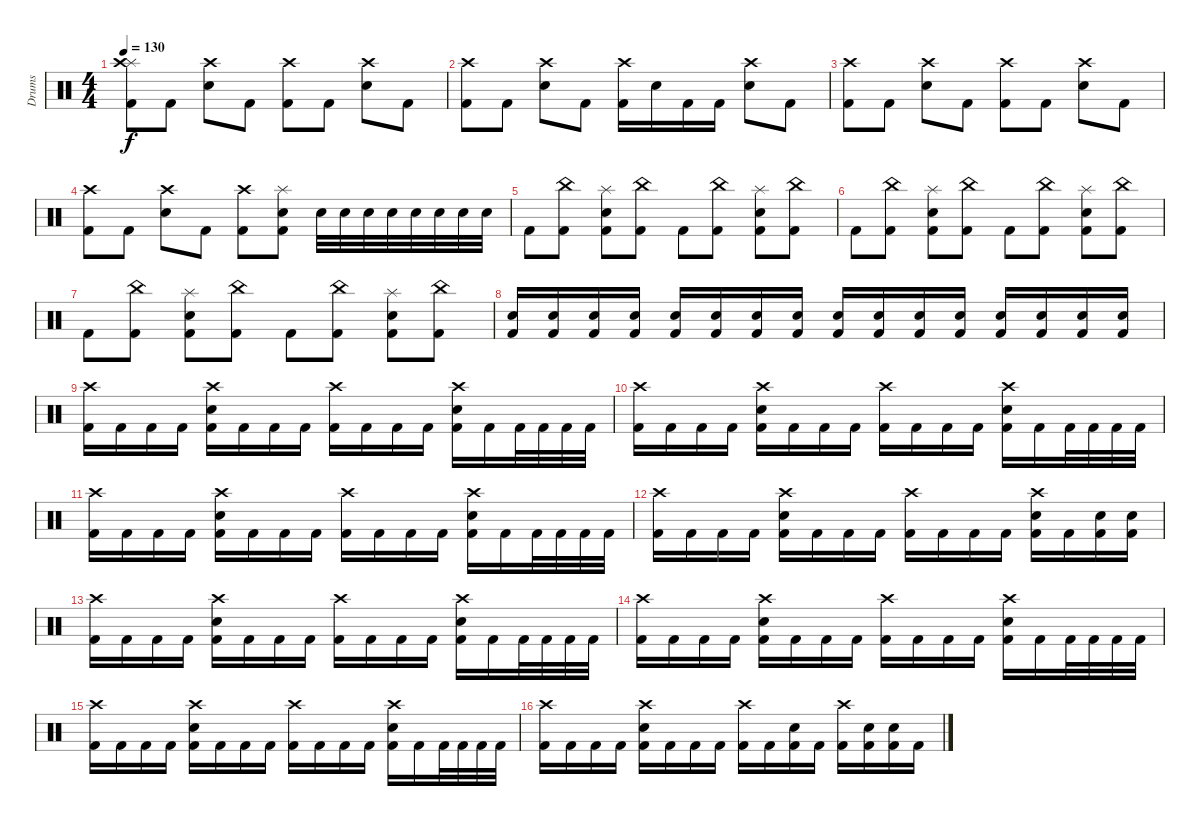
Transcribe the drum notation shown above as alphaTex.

\track ("Drums" "Drums") {instrument percussion}
\staff {score}
\articulation defaults
\ts (4 4)
\tempo 130
\clef neutral
\ks c
("Splash (hit)" "Crash high (hit)" "Kick (hit) 2").8{dy f} "Kick (hit) 2".8 ("Crash high (hit)" "Snare (hit) 2").8 "Kick (hit) 2".8 ("Crash high (hit)" "Kick (hit) 2").8 "Kick (hit) 2".8 ("Crash high (hit)" "Snare (hit) 2").8 "Kick (hit) 2".8 |
("Crash high (hit)" "Kick (hit) 2").8 "Kick (hit) 2".8 ("Crash high (hit)" "Snare (hit) 2").8 "Kick (hit) 2".8 ("Crash high (hit)" "Kick (hit) 2").16 "Snare (hit) 2".16 "Kick (hit) 2".16 "Kick (hit) 2".16 ("Crash high (hit)" "Snare (hit) 2").8 "Kick (hit) 2".8 |
("Crash high (hit)" "Kick (hit) 2").8 "Kick (hit) 2".8 ("Crash high (hit)" "Snare (hit) 2").8 "Kick (hit) 2".8 ("Crash high (hit)" "Kick (hit) 2").8 "Kick (hit) 2".8 ("Crash high (hit)" "Snare (hit) 2").8 "Kick (hit) 2".8 |
("Crash high (hit)" "Kick (hit) 2").8 "Kick (hit) 2".8 ("Crash high (hit)" "Snare (hit) 2").8 "Kick (hit) 2".8 ("Crash high (hit)" "Kick (hit) 2").8 ("Splash (hit)" "Snare (hit) 2" "Kick (hit) 2").8 "Snare (hit) 2".32 "Snare (hit) 2".32 "Snare (hit) 2".32 "Snare (hit) 2".32 "Snare (hit) 2".32 "Snare (hit) 2".32 "Snare (hit) 2".32 "Snare (hit) 2".32 |
"Kick (hit) 2".8 ("China (hit)" "Kick (hit) 2").8 ("Splash (hit)" "Snare (hit) 2" "Kick (hit) 2").8 ("China (hit)" "Kick (hit) 2").8 "Kick (hit) 2".8 ("China (hit)" "Kick (hit) 2").8 ("Splash (hit)" "Snare (hit) 2" "Kick (hit) 2").8 ("China (hit)" "Kick (hit) 2").8 |
"Kick (hit) 2".8 ("China (hit)" "Kick (hit) 2").8 ("Splash (hit)" "Snare (hit) 2" "Kick (hit) 2").8 ("China (hit)" "Kick (hit) 2").8 "Kick (hit) 2".8 ("China (hit)" "Kick (hit) 2").8 ("Splash (hit)" "Snare (hit) 2" "Kick (hit) 2").8 ("China (hit)" "Kick (hit) 2").8 |
"Kick (hit) 2".8 ("China (hit)" "Kick (hit) 2").8 ("Splash (hit)" "Snare (hit) 2" "Kick (hit) 2").8 ("China (hit)" "Kick (hit) 2").8 "Kick (hit) 2".8 ("China (hit)" "Kick (hit) 2").8 ("Splash (hit)" "Snare (hit) 2" "Kick (hit) 2").8 ("China (hit)" "Kick (hit) 2").8 |
("Snare (hit) 2" "Kick (hit) 2").16 ("Snare (hit) 2" "Kick (hit) 2").16 ("Snare (hit) 2" "Kick (hit) 2").16 ("Snare (hit) 2" "Kick (hit) 2").16 ("Snare (hit) 2" "Kick (hit) 2").16 ("Snare (hit) 2" "Kick (hit) 2").16 ("Snare (hit) 2" "Kick (hit) 2").16 ("Snare (hit) 2" "Kick (hit) 2").16 ("Snare (hit) 2" "Kick (hit) 2").16 ("Snare (hit) 2" "Kick (hit) 2").16 ("Snare (hit) 2" "Kick (hit) 2").16 ("Snare (hit) 2" "Kick (hit) 2").16 ("Snare (hit) 2" "Kick (hit) 2").16 ("Snare (hit) 2" "Kick (hit) 2").16 ("Snare (hit) 2" "Kick (hit) 2").16 ("Snare (hit) 2" "Kick (hit) 2").16 |
("Crash high (hit)" "Kick (hit) 2").16 "Kick (hit) 2".16 "Kick (hit) 2".16 "Kick (hit) 2".16 ("Crash high (hit)" "Snare (hit) 2" "Kick (hit) 2").16 "Kick (hit) 2".16 "Kick (hit) 2".16 "Kick (hit) 2".16 ("Crash high (hit)" "Kick (hit) 2").16 "Kick (hit) 2".16 "Kick (hit) 2".16 "Kick (hit) 2".16 ("Crash high (hit)" "Snare (hit) 2" "Kick (hit) 2").16 "Kick (hit) 2".16 "Kick (hit) 2".32 "Kick (hit) 2".32 "Kick (hit) 2".32 "Kick (hit) 2".32 |
("Crash high (hit)" "Kick (hit) 2").16 "Kick (hit) 2".16 "Kick (hit) 2".16 "Kick (hit) 2".16 ("Crash high (hit)" "Snare (hit) 2" "Kick (hit) 2").16 "Kick (hit) 2".16 "Kick (hit) 2".16 "Kick (hit) 2".16 ("Crash high (hit)" "Kick (hit) 2").16 "Kick (hit) 2".16 "Kick (hit) 2".16 "Kick (hit) 2".16 ("Crash high (hit)" "Snare (hit) 2" "Kick (hit) 2").16 "Kick (hit) 2".16 "Kick (hit) 2".32 "Kick (hit) 2".32 "Kick (hit) 2".32 "Kick (hit) 2".32 |
("Crash high (hit)" "Kick (hit) 2").16 "Kick (hit) 2".16 "Kick (hit) 2".16 "Kick (hit) 2".16 ("Crash high (hit)" "Snare (hit) 2" "Kick (hit) 2").16 "Kick (hit) 2".16 "Kick (hit) 2".16 "Kick (hit) 2".16 ("Crash high (hit)" "Kick (hit) 2").16 "Kick (hit) 2".16 "Kick (hit) 2".16 "Kick (hit) 2".16 ("Crash high (hit)" "Snare (hit) 2" "Kick (hit) 2").16 "Kick (hit) 2".16 "Kick (hit) 2".32 "Kick (hit) 2".32 "Kick (hit) 2".32 "Kick (hit) 2".32 |
("Crash high (hit)" "Kick (hit) 2").16 "Kick (hit) 2".16 "Kick (hit) 2".16 "Kick (hit) 2".16 ("Crash high (hit)" "Snare (hit) 2" "Kick (hit) 2").16 "Kick (hit) 2".16 "Kick (hit) 2".16 "Kick (hit) 2".16 ("Crash high (hit)" "Kick (hit) 2").16 "Kick (hit) 2".16 "Kick (hit) 2".16 "Kick (hit) 2".16 ("Crash high (hit)" "Snare (hit) 2" "Kick (hit) 2").16 "Kick (hit) 2".16 ("Snare (hit) 2" "Kick (hit) 2").16 ("Snare (hit) 2" "Kick (hit) 2").16 |
("Crash high (hit)" "Kick (hit) 2").16 "Kick (hit) 2".16 "Kick (hit) 2".16 "Kick (hit) 2".16 ("Crash high (hit)" "Snare (hit) 2" "Kick (hit) 2").16 "Kick (hit) 2".16 "Kick (hit) 2".16 "Kick (hit) 2".16 ("Crash high (hit)" "Kick (hit) 2").16 "Kick (hit) 2".16 "Kick (hit) 2".16 "Kick (hit) 2".16 ("Crash high (hit)" "Snare (hit) 2" "Kick (hit) 2").16 "Kick (hit) 2".16 "Kick (hit) 2".32 "Kick (hit) 2".32 "Kick (hit) 2".32 "Kick (hit) 2".32 |
("Crash high (hit)" "Kick (hit) 2").16 "Kick (hit) 2".16 "Kick (hit) 2".16 "Kick (hit) 2".16 ("Crash high (hit)" "Snare (hit) 2" "Kick (hit) 2").16 "Kick (hit) 2".16 "Kick (hit) 2".16 "Kick (hit) 2".16 ("Crash high (hit)" "Kick (hit) 2").16 "Kick (hit) 2".16 "Kick (hit) 2".16 "Kick (hit) 2".16 ("Crash high (hit)" "Snare (hit) 2" "Kick (hit) 2").16 "Kick (hit) 2".16 "Kick (hit) 2".32 "Kick (hit) 2".32 "Kick (hit) 2".32 "Kick (hit) 2".32 |
("Crash high (hit)" "Kick (hit) 2").16 "Kick (hit) 2".16 "Kick (hit) 2".16 "Kick (hit) 2".16 ("Crash high (hit)" "Snare (hit) 2" "Kick (hit) 2").16 "Kick (hit) 2".16 "Kick (hit) 2".16 "Kick (hit) 2".16 ("Crash high (hit)" "Kick (hit) 2").16 "Kick (hit) 2".16 "Kick (hit) 2".16 "Kick (hit) 2".16 ("Crash high (hit)" "Snare (hit) 2" "Kick (hit) 2").16 "Kick (hit) 2".16 "Kick (hit) 2".32 "Kick (hit) 2".32 "Kick (hit) 2".32 "Kick (hit) 2".32 |
("Crash high (hit)" "Kick (hit) 2").16 "Kick (hit) 2".16 "Kick (hit) 2".16 "Kick (hit) 2".16 ("Crash high (hit)" "Snare (hit) 2" "Kick (hit) 2").16 "Kick (hit) 2".16 "Kick (hit) 2".16 "Kick (hit) 2".16 ("Crash high (hit)" "Kick (hit) 2").16 "Kick (hit) 2".16 ("Snare (hit) 2" "Kick (hit) 2").16 "Kick (hit) 2".16 ("Crash high (hit)" "Kick (hit) 2").16 ("Snare (hit) 2" "Kick (hit) 2").16 ("Snare (hit) 2" "Kick (hit) 2").16 "Kick (hit) 2".16
